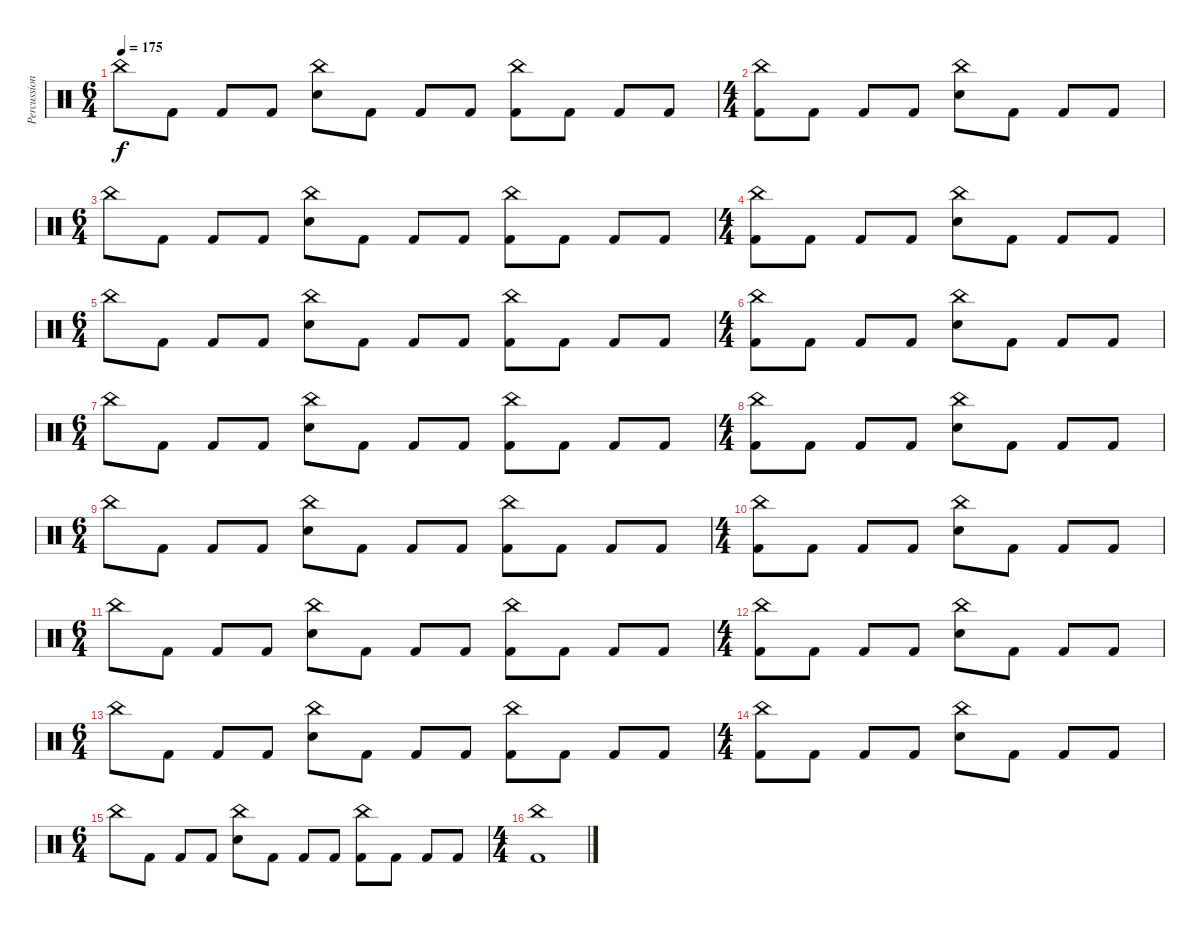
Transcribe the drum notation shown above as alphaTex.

\track ("Percussion" "Percussion") {instrument percussion}
\staff {score}
\articulation defaults
\ts (6 4)
\tempo 175
\clef neutral
\ks c "China (hit)".8{dy f} "Kick (hit) 2".8 "Kick (hit) 2".8 "Kick (hit) 2".8
("China (hit)" "Electric Snare (hit)").8 "Kick (hit) 2".8 "Kick (hit) 2".8 "Kick (hit) 2".8 ("China (hit)" "Kick (hit) 2").8 "Kick (hit) 2".8 "Kick (hit) 2".8 "Kick (hit) 2".8 |
\ts (4 4)
("China (hit)" "Kick (hit) 2").8 "Kick (hit) 2".8 "Kick (hit) 2".8 "Kick (hit) 2".8 ("China (hit)" "Electric Snare (hit)").8 "Kick (hit) 2".8 "Kick (hit) 2".8 "Kick (hit) 2".8 |
\ts (6 4)
"China (hit)".8 "Kick (hit) 2".8 "Kick (hit) 2".8 "Kick (hit) 2".8 ("China (hit)" "Electric Snare (hit)").8 "Kick (hit) 2".8 "Kick (hit) 2".8 "Kick (hit) 2".8 ("China (hit)" "Kick (hit) 2").8 "Kick (hit) 2".8 "Kick (hit) 2".8 "Kick (hit) 2".8 |
\ts (4 4)
("China (hit)" "Kick (hit) 2").8 "Kick (hit) 2".8 "Kick (hit) 2".8 "Kick (hit) 2".8 ("China (hit)" "Electric Snare (hit)").8 "Kick (hit) 2".8 "Kick (hit) 2".8 "Kick (hit) 2".8 |
\ts (6 4)
"China (hit)".8 "Kick (hit) 2".8 "Kick (hit) 2".8 "Kick (hit) 2".8 ("China (hit)" "Electric Snare (hit)").8 "Kick (hit) 2".8 "Kick (hit) 2".8 "Kick (hit) 2".8 ("China (hit)" "Kick (hit) 2").8 "Kick (hit) 2".8 "Kick (hit) 2".8 "Kick (hit) 2".8 |
\ts (4 4)
("China (hit)" "Kick (hit) 2").8 "Kick (hit) 2".8 "Kick (hit) 2".8 "Kick (hit) 2".8 ("China (hit)" "Electric Snare (hit)").8 "Kick (hit) 2".8 "Kick (hit) 2".8 "Kick (hit) 2".8 |
\ts (6 4)
"China (hit)".8 "Kick (hit) 2".8 "Kick (hit) 2".8 "Kick (hit) 2".8 ("China (hit)" "Electric Snare (hit)").8 "Kick (hit) 2".8 "Kick (hit) 2".8 "Kick (hit) 2".8 ("China (hit)" "Kick (hit) 2").8 "Kick (hit) 2".8 "Kick (hit) 2".8 "Kick (hit) 2".8 |
\ts (4 4)
("China (hit)" "Kick (hit) 2").8 "Kick (hit) 2".8 "Kick (hit) 2".8 "Kick (hit) 2".8 ("China (hit)" "Electric Snare (hit)").8 "Kick (hit) 2".8 "Kick (hit) 2".8 "Kick (hit) 2".8 |
\ts (6 4)
"China (hit)".8 "Kick (hit) 2".8 "Kick (hit) 2".8 "Kick (hit) 2".8 ("China (hit)" "Electric Snare (hit)").8 "Kick (hit) 2".8 "Kick (hit) 2".8 "Kick (hit) 2".8 ("China (hit)" "Kick (hit) 2").8 "Kick (hit) 2".8 "Kick (hit) 2".8 "Kick (hit) 2".8 |
\ts (4 4)
("China (hit)" "Kick (hit) 2").8 "Kick (hit) 2".8 "Kick (hit) 2".8 "Kick (hit) 2".8 ("China (hit)" "Electric Snare (hit)").8 "Kick (hit) 2".8 "Kick (hit) 2".8 "Kick (hit) 2".8 |
\ts (6 4)
"China (hit)".8 "Kick (hit) 2".8 "Kick (hit) 2".8 "Kick (hit) 2".8 ("China (hit)" "Electric Snare (hit)").8 "Kick (hit) 2".8 "Kick (hit) 2".8 "Kick (hit) 2".8 ("China (hit)" "Kick (hit) 2").8 "Kick (hit) 2".8 "Kick (hit) 2".8 "Kick (hit) 2".8 |
\ts (4 4)
("China (hit)" "Kick (hit) 2").8 "Kick (hit) 2".8 "Kick (hit) 2".8 "Kick (hit) 2".8 ("China (hit)" "Electric Snare (hit)").8 "Kick (hit) 2".8 "Kick (hit) 2".8 "Kick (hit) 2".8 |
\ts (6 4)
"China (hit)".8 "Kick (hit) 2".8 "Kick (hit) 2".8 "Kick (hit) 2".8 ("China (hit)" "Electric Snare (hit)").8 "Kick (hit) 2".8 "Kick (hit) 2".8 "Kick (hit) 2".8 ("China (hit)" "Kick (hit) 2").8 "Kick (hit) 2".8 "Kick (hit) 2".8 "Kick (hit) 2".8 |
\ts (4 4)
("China (hit)" "Kick (hit) 2").8 "Kick (hit) 2".8 "Kick (hit) 2".8 "Kick (hit) 2".8 ("China (hit)" "Electric Snare (hit)").8 "Kick (hit) 2".8 "Kick (hit) 2".8 "Kick (hit) 2".8 |
\ts (6 4)
"China (hit)".8 "Kick (hit) 2".8 "Kick (hit) 2".8 "Kick (hit) 2".8 ("China (hit)" "Electric Snare (hit)").8 "Kick (hit) 2".8 "Kick (hit) 2".8 "Kick (hit) 2".8 ("China (hit)" "Kick (hit) 2").8 "Kick (hit) 2".8 "Kick (hit) 2".8 "Kick (hit) 2".8 |
\ts (4 4)
("China (hit)" "Kick (hit) 2").1
